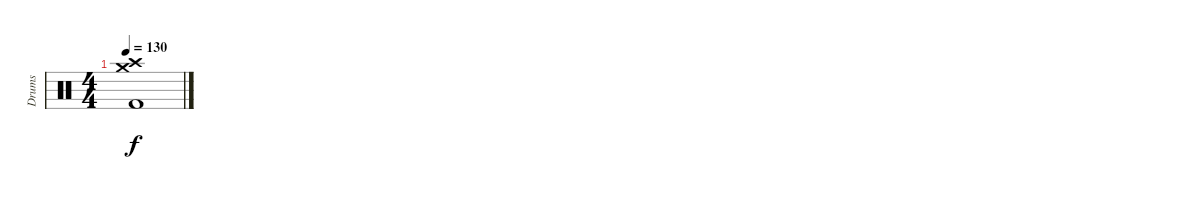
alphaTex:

\track ("Drums" "Drums") {instrument percussion}
\staff {score}
\articulation defaults
\ts (4 4)
\tempo 130
\clef neutral
\ks c
("Kick (hit) 2" "Crash medium (hit)" "Crash high (hit)").1{dy f}
